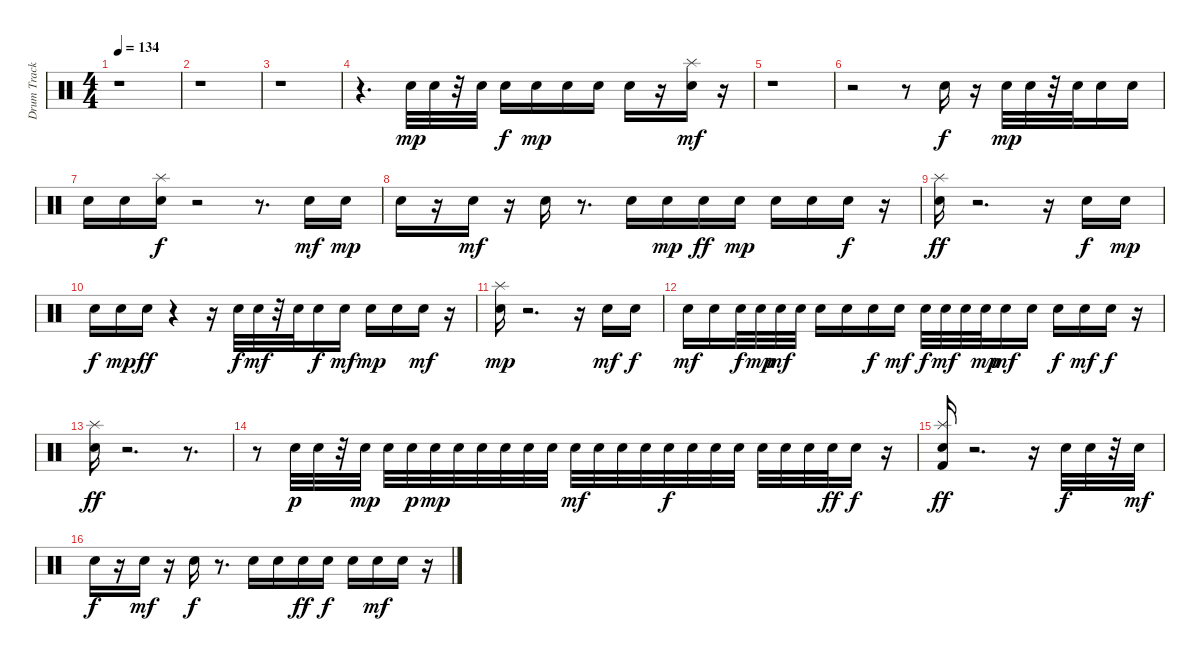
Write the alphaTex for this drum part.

\track ("Drum Track" "Drum Track") {instrument percussion}
\staff {score}
\articulation defaults
\ts (4 4)
\tempo 134
\clef neutral
\ks c
r.1{dy mp} |
r.1 |
r.1 |
r.4{d} "Electric Snare (hit)".32 "Electric Snare (hit)".32 r.32 "Electric Snare (hit)".32 "Electric Snare (hit)".16{dy f} "Electric Snare (hit)".16{dy mp} "Electric Snare (hit)".16 "Electric Snare (hit)".16 "Electric Snare (hit)".16 r.16 ("Electric Snare (hit)" "Splash (hit)").16{dy mf} r.16 |
r.1 |
r.2 r.8 "Electric Snare (hit)".16{dy f} r.16 "Electric Snare (hit)".32{dy mp} "Electric Snare (hit)".32 r.32 "Electric Snare (hit)".32 "Electric Snare (hit)".16 "Electric Snare (hit)".16 |
"Electric Snare (hit)".16 "Electric Snare (hit)".16 ("Electric Snare (hit)" "Splash (hit)").16{dy f} r.2 r.8{d} "Electric Snare (hit)".16{dy mf} "Electric Snare (hit)".16{dy mp} |
"Electric Snare (hit)".16 r.16 "Electric Snare (hit)".16{dy mf} r.16 "Electric Snare (hit)".16 r.8{d} "Electric Snare (hit)".16 "Electric Snare (hit)".16{dy mp} "Electric Snare (hit)".16{dy ff} "Electric Snare (hit)".16{dy mp} "Electric Snare (hit)".16 "Electric Snare (hit)".16 "Electric Snare (hit)".16{dy f} r.16 |
("Electric Snare (hit)" "Splash (hit)").16{dy ff} r.2{d} r.16 "Electric Snare (hit)".16{dy f} "Electric Snare (hit)".16{dy mp} |
"Electric Snare (hit)".16{dy f} "Electric Snare (hit)".16{dy mp} "Electric Snare (hit)".16{dy ff} r.4 r.16 "Electric Snare (hit)".32{dy f} "Electric Snare (hit)".32{dy mf} r.32 "Electric Snare (hit)".32 "Electric Snare (hit)".16{dy f} "Electric Snare (hit)".16{dy mf} "Electric Snare (hit)".16{dy mp} "Electric Snare (hit)".16 "Electric Snare (hit)".16{dy mf} r.16 |
("Electric Snare (hit)" "Splash (hit)").16{dy mp} r.2{d} r.16 "Electric Snare (hit)".16{dy mf} "Electric Snare (hit)".16{dy f} |
"Electric Snare (hit)".16{dy mf} "Electric Snare (hit)".16 "Electric Snare (hit)".32{dy f} "Electric Snare (hit)".32{dy mp} "Electric Snare (hit)".32{dy mf} "Electric Snare (hit)".32 "Electric Snare (hit)".16 "Electric Snare (hit)".16 "Electric Snare (hit)".16{dy f} "Electric Snare (hit)".16{dy mf} "Electric Snare (hit)".32{dy f} "Electric Snare (hit)".32{dy mf} "Electric Snare (hit)".32 "Electric Snare (hit)".32{dy mp} "Electric Snare (hit)".16{dy mf} "Electric Snare (hit)".16 "Electric Snare (hit)".16{dy f} "Electric Snare (hit)".16{dy mf} "Electric Snare (hit)".16{dy f} r.16 |
("Electric Snare (hit)" "Splash (hit)").16{dy ff} r.2{d} r.8{d} |
r.8 "Electric Snare (hit)".32{dy p} "Electric Snare (hit)".32 r.32 "Electric Snare (hit)".32{dy mp} "Electric Snare (hit)".32 "Electric Snare (hit)".32{dy p} "Electric Snare (hit)".32{dy mp} "Electric Snare (hit)".32 "Electric Snare (hit)".32 "Electric Snare (hit)".32 "Electric Snare (hit)".32 "Electric Snare (hit)".32 "Electric Snare (hit)".32{dy mf} "Electric Snare (hit)".32 "Electric Snare (hit)".32 "Electric Snare (hit)".32 "Electric Snare (hit)".32{dy f} "Electric Snare (hit)".32 "Electric Snare (hit)".32 "Electric Snare (hit)".32 "Electric Snare (hit)".32 "Electric Snare (hit)".32 "Electric Snare (hit)".32 "Electric Snare (hit)".32{dy ff} "Electric Snare (hit)".16{dy f} r.16 |
("Kick (hit) 2" "Electric Snare (hit)" "Splash (hit)").16{dy ff} r.2{d} r.16 "Electric Snare (hit)".32{dy f} "Electric Snare (hit)".32 r.32 "Electric Snare (hit)".32{dy mf} |
"Electric Snare (hit)".16{dy f} r.16 "Electric Snare (hit)".16{dy mf} r.16 "Electric Snare (hit)".16{dy f} r.8{d} "Electric Snare (hit)".16 "Electric Snare (hit)".16 "Electric Snare (hit)".16{dy ff} "Electric Snare (hit)".16{dy f} "Electric Snare (hit)".16 "Electric Snare (hit)".16{dy mf} "Electric Snare (hit)".16 r.16
